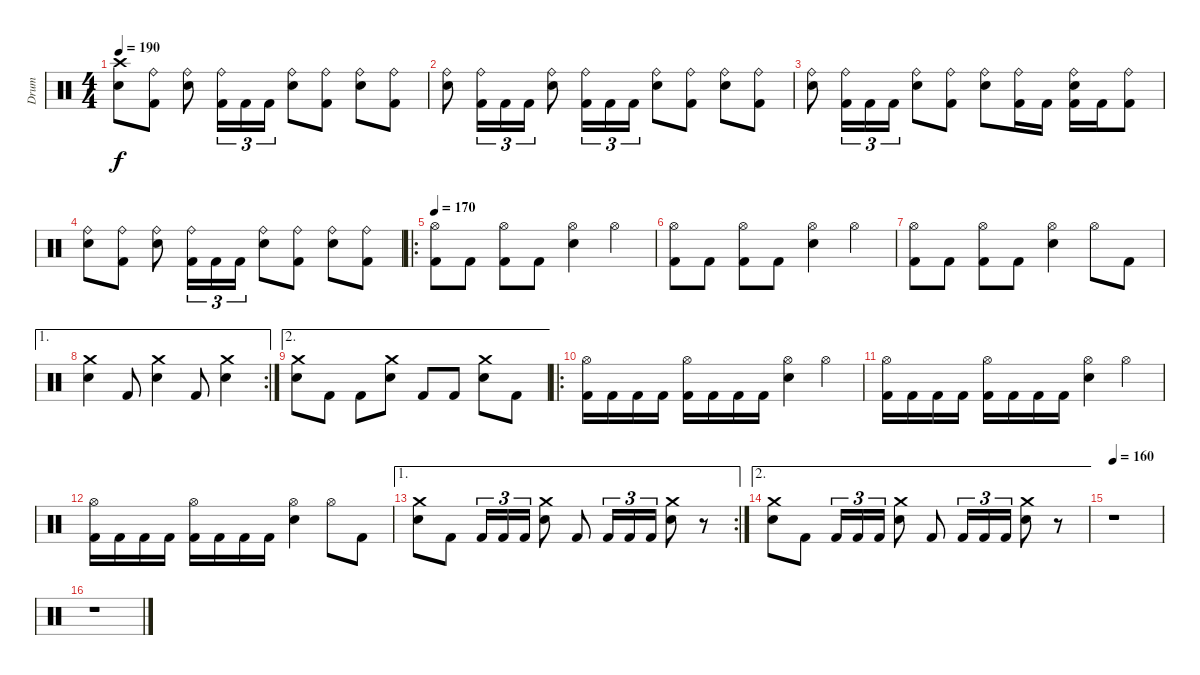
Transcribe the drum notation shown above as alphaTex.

\track ("Drum" "Drum") {instrument percussion}
\staff {score}
\articulation defaults
\ts (4 4)
\tempo 190
\clef neutral
\ks c
("Snare (hit) 2" "Crash high (hit)").8{dy f} ("Kick (hit) 2" "Ride (bell)").8 ("Snare (hit) 2" "Ride (bell)").8 ("Kick (hit) 2" "Ride (bell)").16{tu (3 2)} "Kick (hit) 2".16{tu (3 2)} "Kick (hit) 2".16{tu (3 2)} ("Snare (hit) 2" "Ride (bell)").8 ("Kick (hit) 2" "Ride (bell)").8 ("Snare (hit) 2" "Ride (bell)").8 ("Kick (hit) 2" "Ride (bell)").8 |
("Snare (hit) 2" "Ride (bell)").8 ("Kick (hit) 2" "Ride (bell)").16{tu (3 2)} "Kick (hit) 2".16{tu (3 2)} "Kick (hit) 2".16{tu (3 2)} ("Snare (hit) 2" "Ride (bell)").8 ("Kick (hit) 2" "Ride (bell)").16{tu (3 2)} "Kick (hit) 2".16{tu (3 2)} "Kick (hit) 2".16{tu (3 2)} ("Snare (hit) 2" "Ride (bell)").8 ("Kick (hit) 2" "Ride (bell)").8 ("Snare (hit) 2" "Ride (bell)").8 ("Kick (hit) 2" "Ride (bell)").8 |
("Snare (hit) 2" "Ride (bell)").8 ("Kick (hit) 2" "Ride (bell)").16{tu (3 2)} "Kick (hit) 2".16{tu (3 2)} "Kick (hit) 2".16{tu (3 2)} ("Snare (hit) 2" "Ride (bell)").8 ("Kick (hit) 2" "Ride (bell)").8 ("Snare (hit) 2" "Ride (bell)").8 ("Kick (hit) 2" "Ride (bell)").16 "Kick (hit) 2".16 ("Kick (hit) 2" "Snare (hit) 2" "Ride (bell)").16 "Kick (hit) 2".16 ("Kick (hit) 2" "Ride (bell)").8 |
("Snare (hit) 2" "Ride (bell)").8 ("Kick (hit) 2" "Ride (bell)").8 ("Snare (hit) 2" "Ride (bell)").8 ("Kick (hit) 2" "Ride (bell)").16{tu (3 2)} "Kick (hit) 2".16{tu (3 2)} "Kick (hit) 2".16{tu (3 2)} ("Snare (hit) 2" "Ride (bell)").8 ("Kick (hit) 2" "Ride (bell)").8 ("Snare (hit) 2" "Ride (bell)").8 ("Kick (hit) 2" "Ride (bell)").8 |
\ro
\tempo 170
("Kick (hit) 2" "Hi-Hat (open)").8 "Kick (hit) 2".8 ("Kick (hit) 2" "Hi-Hat (open)").8 "Kick (hit) 2".8 ("Snare (hit) 2" "Hi-Hat (open)").4 "Hi-Hat (open)".4 |
("Kick (hit) 2" "Hi-Hat (open)").8 "Kick (hit) 2".8 ("Kick (hit) 2" "Hi-Hat (open)").8 "Kick (hit) 2".8 ("Snare (hit) 2" "Hi-Hat (open)").4 "Hi-Hat (open)".4 |
("Kick (hit) 2" "Hi-Hat (open)").8 "Kick (hit) 2".8 ("Kick (hit) 2" "Hi-Hat (open)").8 "Kick (hit) 2".8 ("Snare (hit) 2" "Hi-Hat (open)").4 "Hi-Hat (open)".8 "Kick (hit) 2".8 |
\ae 1
\rc 2
("Snare (hit) 2" "Crash medium (hit)").4 "Kick (hit) 2".8 ("Snare (hit) 2" "Crash medium (hit)").4 "Kick (hit) 2".8 ("Snare (hit) 2" "Crash medium (hit)").4 |
\ae 2
("Snare (hit) 2" "Crash medium (hit)").8 "Kick (hit) 2".8 "Kick (hit) 2".8 ("Snare (hit) 2" "Crash medium (hit)").8 "Kick (hit) 2".8 "Kick (hit) 2".8 ("Snare (hit) 2" "Crash medium (hit)").8 "Kick (hit) 2".8 |
\ro
("Kick (hit) 2" "Hi-Hat (open)").16 "Kick (hit) 2".16 "Kick (hit) 2".16 "Kick (hit) 2".16 ("Kick (hit) 2" "Hi-Hat (open)").16 "Kick (hit) 2".16 "Kick (hit) 2".16 "Kick (hit) 2".16 ("Snare (hit) 2" "Hi-Hat (open)").4 "Hi-Hat (open)".4 |
("Kick (hit) 2" "Hi-Hat (open)").16 "Kick (hit) 2".16 "Kick (hit) 2".16 "Kick (hit) 2".16 ("Kick (hit) 2" "Hi-Hat (open)").16 "Kick (hit) 2".16 "Kick (hit) 2".16 "Kick (hit) 2".16 ("Snare (hit) 2" "Hi-Hat (open)").4 "Hi-Hat (open)".4 |
("Kick (hit) 2" "Hi-Hat (open)").16 "Kick (hit) 2".16 "Kick (hit) 2".16 "Kick (hit) 2".16 ("Kick (hit) 2" "Hi-Hat (open)").16 "Kick (hit) 2".16 "Kick (hit) 2".16 "Kick (hit) 2".16 ("Snare (hit) 2" "Hi-Hat (open)").4 "Hi-Hat (open)".8 "Kick (hit) 2".8 |
\ae 1
\rc 2
("Snare (hit) 2" "Crash medium (hit)").8 "Kick (hit) 2".8 "Kick (hit) 2".16{tu (3 2)} "Kick (hit) 2".16{tu (3 2)} "Kick (hit) 2".16{tu (3 2)} ("Snare (hit) 2" "Crash medium (hit)").8 "Kick (hit) 2".8 "Kick (hit) 2".16{tu (3 2)} "Kick (hit) 2".16{tu (3 2)} "Kick (hit) 2".16{tu (3 2)} ("Snare (hit) 2" "Crash medium (hit)").8 r.8 |
\ae 2
("Snare (hit) 2" "Crash medium (hit)").8 "Kick (hit) 2".8 "Kick (hit) 2".16{tu (3 2)} "Kick (hit) 2".16{tu (3 2)} "Kick (hit) 2".16{tu (3 2)} ("Snare (hit) 2" "Crash medium (hit)").8 "Kick (hit) 2".8 "Kick (hit) 2".16{tu (3 2)} "Kick (hit) 2".16{tu (3 2)} "Kick (hit) 2".16{tu (3 2)} ("Snare (hit) 2" "Crash medium (hit)").8 r.8 |
\tempo 160
r.1 |
r.1
